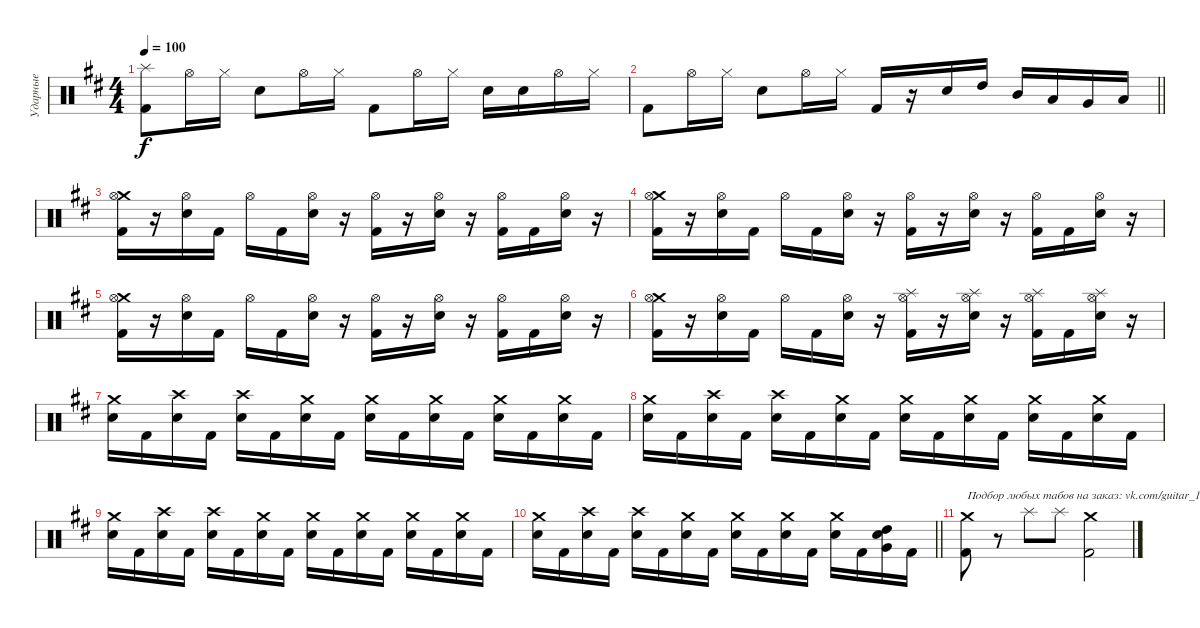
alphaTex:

\track ("Ударные" "Ударные") {instrument percussion}
\staff {score}
\articulation defaults
\ts (4 4)
\tempo 100
\clef neutral
\ks d
("Splash (hit)" "Kick (hit) 2").8{dy f} "Hi-Hat (open)".16 "Hi-Hat (closed)".16 "Electric Snare (hit)".8 "Hi-Hat (open)".16 "Hi-Hat (closed)".16 "Kick (hit) 2".8 "Hi-Hat (open)".16 "Hi-Hat (closed)".16 "Electric Snare (hit)".16 "Electric Snare (hit)".16 "Hi-Hat (open)".16 "Hi-Hat (closed)".16 |
\barLineRight lightlight "Kick (hit) 2".8 "Hi-Hat (open)".16 "Hi-Hat (closed)".16 "Electric Snare (hit)".8 "Hi-Hat (open)".16 "Hi-Hat (closed)".16 "Kick (hit) 2".16
r.16 "Electric Snare (hit)".16 "High Tom (hit)".16 "Mid Tom (hit)".16 "Low Tom (hit)".16 "Very Low Tom (hit)".16 "Low Floor Tom (hit)".16 |
\section ("" "")
("Crash medium (hit)" "Kick (hit) 2" "Hi-Hat (open)").16 r.16 ("Electric Snare (hit)" "Hi-Hat (open)").16 "Kick (hit) 2".16 "Hi-Hat (open)".16 "Kick (hit) 2".16 ("Electric Snare (hit)" "Hi-Hat (open)").16 r.16 ("Kick (hit) 2" "Hi-Hat (open)").16 r.16 ("Electric Snare (hit)" "Hi-Hat (open)").16 r.16 ("Kick (hit) 2" "Hi-Hat (open)").16 "Kick (hit) 2".16 ("Electric Snare (hit)" "Hi-Hat (open)").16 r.16 |
("Crash medium (hit)" "Kick (hit) 2" "Hi-Hat (open)").16 r.16 ("Electric Snare (hit)" "Hi-Hat (open)").16 "Kick (hit) 2".16 "Hi-Hat (open)".16 "Kick (hit) 2".16 ("Electric Snare (hit)" "Hi-Hat (open)").16 r.16 ("Kick (hit) 2" "Hi-Hat (open)").16 r.16 ("Electric Snare (hit)" "Hi-Hat (open)").16 r.16 ("Kick (hit) 2" "Hi-Hat (open)").16 "Kick (hit) 2".16 ("Electric Snare (hit)" "Hi-Hat (open)").16 r.16 |
("Crash medium (hit)" "Kick (hit) 2" "Hi-Hat (open)").16 r.16 ("Electric Snare (hit)" "Hi-Hat (open)").16 "Kick (hit) 2".16 "Hi-Hat (open)".16 "Kick (hit) 2".16 ("Electric Snare (hit)" "Hi-Hat (open)").16 r.16 ("Kick (hit) 2" "Hi-Hat (open)").16 r.16 ("Electric Snare (hit)" "Hi-Hat (open)").16 r.16 ("Kick (hit) 2" "Hi-Hat (open)").16 "Kick (hit) 2".16 ("Electric Snare (hit)" "Hi-Hat (open)").16 r.16 |
("Crash medium (hit)" "Kick (hit) 2" "Hi-Hat (open)").16 r.16 ("Electric Snare (hit)" "Hi-Hat (open)").16 "Kick (hit) 2".16 "Hi-Hat (open)".16 "Kick (hit) 2".16 ("Electric Snare (hit)" "Hi-Hat (open)").16 r.16 ("Splash (hit)" "Kick (hit) 2" "Hi-Hat (open)").16 r.16 ("Splash (hit)" "Electric Snare (hit)" "Hi-Hat (open)").16 r.16 ("Splash (hit)" "Kick (hit) 2" "Hi-Hat (open)").16 "Kick (hit) 2".16 ("Splash (hit)" "Electric Snare (hit)" "Hi-Hat (open)").16 r.16 |
("Crash medium (hit)" "Electric Snare (hit)").16 "Kick (hit) 2".16 ("Crash high (hit)" "Electric Snare (hit)").16 "Kick (hit) 2".16 ("Crash high (hit)" "Electric Snare (hit)").16 "Kick (hit) 2".16 ("Crash medium (hit)" "Electric Snare (hit)").16 "Kick (hit) 2".16 ("Crash medium (hit)" "Electric Snare (hit)").16 "Kick (hit) 2".16 ("Crash medium (hit)" "Electric Snare (hit)").16 "Kick (hit) 2".16 ("Crash medium (hit)" "Electric Snare (hit)").16 "Kick (hit) 2".16 ("Crash medium (hit)" "Electric Snare (hit)").16 "Kick (hit) 2".16 |
("Crash medium (hit)" "Electric Snare (hit)").16 "Kick (hit) 2".16 ("Crash high (hit)" "Electric Snare (hit)").16 "Kick (hit) 2".16 ("Crash high (hit)" "Electric Snare (hit)").16 "Kick (hit) 2".16 ("Crash medium (hit)" "Electric Snare (hit)").16 "Kick (hit) 2".16 ("Crash medium (hit)" "Electric Snare (hit)").16 "Kick (hit) 2".16 ("Crash medium (hit)" "Electric Snare (hit)").16 "Kick (hit) 2".16 ("Crash medium (hit)" "Electric Snare (hit)").16 "Kick (hit) 2".16 ("Crash medium (hit)" "Electric Snare (hit)").16 "Kick (hit) 2".16 |
("Crash medium (hit)" "Electric Snare (hit)").16 "Kick (hit) 2".16 ("Crash high (hit)" "Electric Snare (hit)").16 "Kick (hit) 2".16 ("Crash high (hit)" "Electric Snare (hit)").16 "Kick (hit) 2".16 ("Crash medium (hit)" "Electric Snare (hit)").16 "Kick (hit) 2".16 ("Crash medium (hit)" "Electric Snare (hit)").16 "Kick (hit) 2".16 ("Crash medium (hit)" "Electric Snare (hit)").16 "Kick (hit) 2".16 ("Crash medium (hit)" "Electric Snare (hit)").16 "Kick (hit) 2".16 ("Crash medium (hit)" "Electric Snare (hit)").16 "Kick (hit) 2".16 |
\barLineRight lightlight
("Crash medium (hit)" "Electric Snare (hit)").16 "Kick (hit) 2".16 ("Crash high (hit)" "Electric Snare (hit)").16 "Kick (hit) 2".16 ("Crash high (hit)" "Electric Snare (hit)").16 "Kick (hit) 2".16 ("Crash medium (hit)" "Electric Snare (hit)").16 "Kick (hit) 2".16 ("Crash medium (hit)" "Electric Snare (hit)").16 "Kick (hit) 2".16 ("Crash medium (hit)" "Electric Snare (hit)").16 "Kick (hit) 2".16 ("Crash medium (hit)" "Electric Snare (hit)").16 "Kick (hit) 2".16 ("High Tom (hit)" "Electric Snare (hit)" "Very Low Tom (hit)").16 "Kick (hit) 2".16 |
\section ("" "")
("Crash medium (hit)" "Kick (hit) 2").8{txt "Подбор любых табов на заказ: vk.com/guitar_1"} r.8 "Splash (hit)".8 "Splash (hit)".8 ("Crash medium (hit)" "Kick (hit) 2").2
